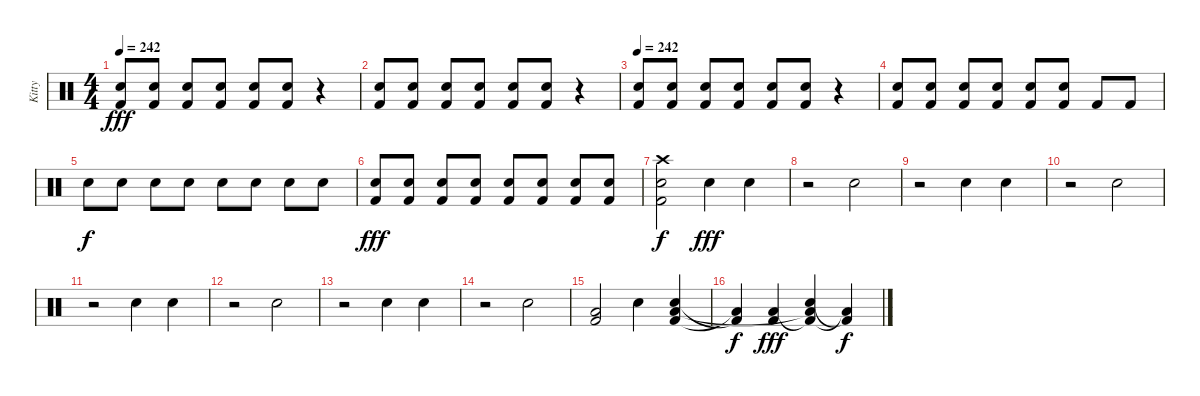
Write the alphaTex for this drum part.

\track ("Kitty" "Kitty") {instrument percussion}
\staff {score}
\articulation defaults
\ts (4 4)
\tempo 242
\clef neutral
\ks c
("Snare (hit) 2" "Kick (hit) 2").8{dy fff} ("Snare (hit) 2" "Kick (hit) 2").8 ("Snare (hit) 2" "Kick (hit) 2").8 ("Snare (hit) 2" "Kick (hit) 2").8 ("Snare (hit) 2" "Kick (hit) 2").8 ("Snare (hit) 2" "Kick (hit) 2").8 r.4 |
("Snare (hit) 2" "Kick (hit) 2").8 ("Snare (hit) 2" "Kick (hit) 2").8 ("Snare (hit) 2" "Kick (hit) 2").8 ("Snare (hit) 2" "Kick (hit) 2").8 ("Snare (hit) 2" "Kick (hit) 2").8 ("Snare (hit) 2" "Kick (hit) 2").8 r.4 |
\tempo 242
("Snare (hit) 2" "Kick (hit) 2").8 ("Snare (hit) 2" "Kick (hit) 2").8 ("Snare (hit) 2" "Kick (hit) 2").8 ("Snare (hit) 2" "Kick (hit) 2").8 ("Snare (hit) 2" "Kick (hit) 2").8 ("Snare (hit) 2" "Kick (hit) 2").8 r.4 |
("Snare (hit) 2" "Kick (hit) 2").8 ("Snare (hit) 2" "Kick (hit) 2").8 ("Snare (hit) 2" "Kick (hit) 2").8 ("Snare (hit) 2" "Kick (hit) 2").8 ("Snare (hit) 2" "Kick (hit) 2").8 ("Snare (hit) 2" "Kick (hit) 2").8 "Kick (hit) 2".8 "Kick (hit) 2".8 |
"Snare (hit) 2".8{dy f} "Electric Snare (hit)".8 "Electric Snare (hit)".8 "Snare (hit) 2".8 "Electric Snare (hit)".8 "Electric Snare (hit)".8 "Snare (hit) 2".8 "Electric Snare (hit)".8 |
("Electric Snare (hit)" "Kick (hit) 2").8{dy fff} ("Electric Snare (hit)" "Kick (hit) 2").8 ("Electric Snare (hit)" "Kick (hit) 2").8 ("Electric Snare (hit)" "Kick (hit) 2").8 ("Electric Snare (hit)" "Kick (hit) 2").8 ("Electric Snare (hit)" "Kick (hit) 2").8 ("Electric Snare (hit)" "Kick (hit) 2").8 ("Electric Snare (hit)" "Kick (hit) 2").8 |
("Electric Snare (hit)" "Kick (hit) 2" "Crash high (hit)").2{dy f} "Hand Clap (hit)".4{dy fff} "Hand Clap (hit)".4 |
r.2 "Hand Clap (hit)".2 |
r.2 "Hand Clap (hit)".4 "Hand Clap (hit)".4 |
r.2 "Hand Clap (hit)".2 |
r.2 "Hand Clap (hit)".4 "Hand Clap (hit)".4 |
r.2 "Hand Clap (hit)".2 |
r.2 "Hand Clap (hit)".4 "Hand Clap (hit)".4 |
r.2 "Hand Clap (hit)".2 |
("Kick (hit) 2" "Low Floor Tom (hit)").2 "Hand Clap (hit)".4 ("Hand Clap (hit)" "Kick (hit) 2" "Low Floor Tom (hit)").4 |
("Kick (hit) 2"{t} "Low Floor Tom (hit)"{t}).4{dy f} ("Kick (hit) 2" "Low Floor Tom (hit)").4{dy fff} ("Hand Clap (hit)" "Kick (hit) 2"{t} "Low Floor Tom (hit)"{t}).4 ("Kick (hit) 2"{t} "Low Floor Tom (hit)"{t}).4{dy f}
